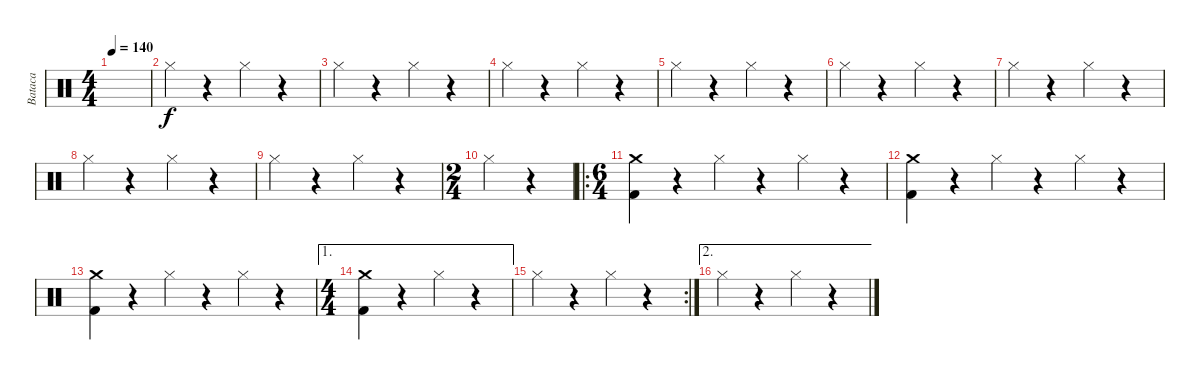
\track ("Bataca" "Bataca") {instrument percussion}
\staff {score}
\articulation defaults
\ts (4 4)
\tempo 140
\clef neutral
\ks c
|
"Hi-Hat (closed)".4 r.4 "Hi-Hat (closed)".4 r.4 |
"Hi-Hat (closed)".4 r.4 "Hi-Hat (closed)".4 r.4 |
"Hi-Hat (closed)".4 r.4 "Hi-Hat (closed)".4 r.4 |
"Hi-Hat (closed)".4 r.4 "Hi-Hat (closed)".4 r.4 |
"Hi-Hat (closed)".4 r.4 "Hi-Hat (closed)".4 r.4 |
"Hi-Hat (closed)".4 r.4 "Hi-Hat (closed)".4 r.4 |
"Hi-Hat (closed)".4 r.4 "Hi-Hat (closed)".4 r.4 |
"Hi-Hat (closed)".4 r.4 "Hi-Hat (closed)".4 r.4 |
\ts (2 4)
"Hi-Hat (closed)".4 r.4 |
\ro
\ts (6 4)
("Crash medium (hit)" "Kick (hit) 2").4 r.4 "Hi-Hat (closed)".4 r.4 "Hi-Hat (closed)".4 r.4 |
("Crash medium (hit)" "Kick (hit) 2").4 r.4 "Hi-Hat (closed)".4 r.4 "Hi-Hat (closed)".4 r.4 |
("Crash medium (hit)" "Kick (hit) 2").4 r.4 "Hi-Hat (closed)".4 r.4 "Hi-Hat (closed)".4 r.4 |
\ae 1
\ts (4 4)
("Crash medium (hit)" "Kick (hit) 2").4 r.4 "Hi-Hat (closed)".4 r.4 |
\rc 2 "Hi-Hat (closed)".4
r.4 "Hi-Hat (closed)".4 r.4 |
\ae 2 "Hi-Hat (closed)".4
r.4 "Hi-Hat (closed)".4 r.4
